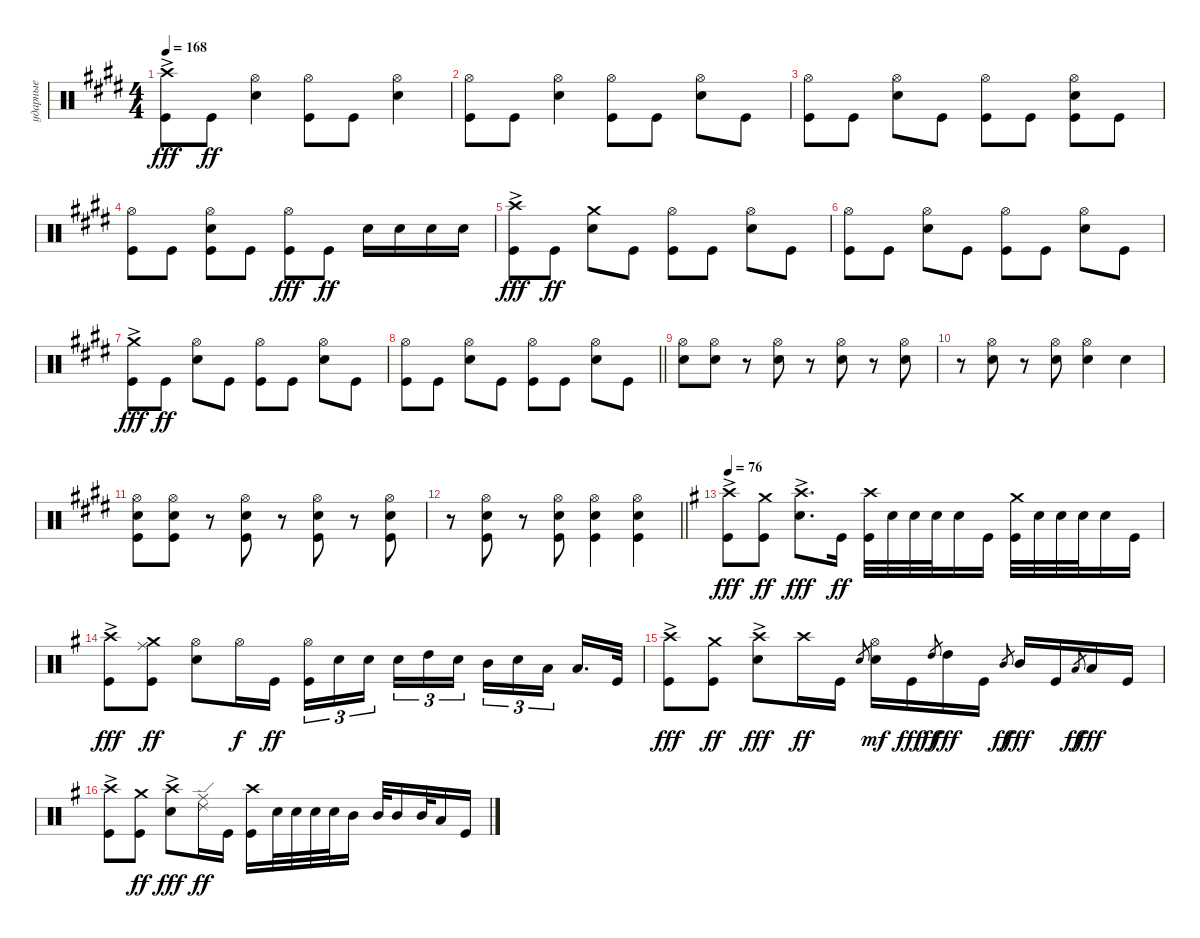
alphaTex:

\track ("ударные" "ударные") {instrument percussion}
\staff {score}
\articulation defaults
\ts (4 4)
\tempo 168
\clef neutral
\ks e
("Kick (hit)" "Crash high (hit)"{ac}).8{dy fff} "Kick (hit)".8{dy ff} ("Snare (hit) 2" "Hi-Hat (open)").4 ("Kick (hit)" "Hi-Hat (open)").8 "Kick (hit)".8 ("Snare (hit) 2" "Hi-Hat (open)").4 |
("Kick (hit)" "Hi-Hat (open)").8 "Kick (hit)".8 ("Snare (hit) 2" "Hi-Hat (open)").4 ("Kick (hit)" "Hi-Hat (open)").8 "Kick (hit)".8 ("Snare (hit) 2" "Hi-Hat (open)").8 "Kick (hit)".8 |
("Kick (hit)" "Hi-Hat (open)").8 "Kick (hit)".8 ("Snare (hit) 2" "Hi-Hat (open)").8 "Kick (hit)".8 ("Kick (hit)" "Hi-Hat (open)").8 "Kick (hit)".8 ("Snare (hit) 2" "Hi-Hat (open)" "Kick (hit)").8 "Kick (hit)".8 |
("Kick (hit)" "Hi-Hat (open)").8 "Kick (hit)".8 ("Snare (hit) 2" "Hi-Hat (open)" "Kick (hit)").8 "Kick (hit)".8 ("Kick (hit)" "Hi-Hat (open)").8{dy fff} "Kick (hit)".8{dy ff} "Snare (hit) 2".16 "Snare (hit) 2".16 "Snare (hit) 2".16 "Snare (hit) 2".16 |
("Kick (hit)" "Crash high (hit)"{ac}).8{dy fff} "Kick (hit)".8{dy ff} ("Snare (hit) 2" "Crash medium (hit)").8 "Kick (hit)".8 ("Kick (hit)" "Hi-Hat (open)").8 "Kick (hit)".8 ("Snare (hit) 2" "Hi-Hat (open)").8 "Kick (hit)".8 |
("Kick (hit)" "Hi-Hat (open)").8 "Kick (hit)".8 ("Snare (hit) 2" "Hi-Hat (open)").8 "Kick (hit)".8 ("Kick (hit)" "Hi-Hat (open)").8 "Kick (hit)".8 ("Snare (hit) 2" "Hi-Hat (open)").8 "Kick (hit)".8 |
("Kick (hit)" "Crash medium (hit)"{ac}).8{dy fff} "Kick (hit)".8{dy ff} ("Snare (hit) 2" "Hi-Hat (open)").8 "Kick (hit)".8 ("Kick (hit)" "Hi-Hat (open)").8 "Kick (hit)".8 ("Snare (hit) 2" "Hi-Hat (open)").8 "Kick (hit)".8 |
\barLineRight lightlight
("Kick (hit)" "Hi-Hat (open)").8 "Kick (hit)".8 ("Snare (hit) 2" "Hi-Hat (open)").8 "Kick (hit)".8 ("Kick (hit)" "Hi-Hat (open)").8 "Kick (hit)".8 ("Snare (hit) 2" "Hi-Hat (open)").8 "Kick (hit)".8 |
("Snare (hit) 2" "Hi-Hat (open)").8 ("Snare (hit) 2" "Hi-Hat (open)").8 r.8 ("Snare (hit) 2" "Hi-Hat (open)").8 r.8 ("Snare (hit) 2" "Hi-Hat (open)").8 r.8 ("Snare (hit) 2" "Hi-Hat (open)").8 |
r.8 ("Snare (hit) 2" "Hi-Hat (open)").8 r.8 ("Snare (hit) 2" "Hi-Hat (open)").8 ("Snare (hit) 2" "Hi-Hat (open)").4 "Snare (hit) 2".4 |
("Kick (hit)" "Snare (hit) 2" "Hi-Hat (open)").8 ("Kick (hit)" "Snare (hit) 2" "Hi-Hat (open)").8 r.8 ("Kick (hit)" "Snare (hit) 2" "Hi-Hat (open)").8 r.8 ("Kick (hit)" "Snare (hit) 2" "Hi-Hat (open)").8 r.8 ("Kick (hit)" "Snare (hit) 2" "Hi-Hat (open)").8 |
\barLineRight lightlight
r.8 ("Kick (hit)" "Snare (hit) 2" "Hi-Hat (open)").8 r.8 ("Kick (hit)" "Snare (hit) 2" "Hi-Hat (open)").8 ("Kick (hit)" "Snare (hit) 2" "Hi-Hat (open)").4 ("Snare (hit) 2" "Kick (hit)" "Hi-Hat (open)").4 |
\tempo 76
\ks eminor
("Kick (hit)" "Crash high (hit)"{ac}).8{dy fff} ("Kick (hit)" "Crash medium (hit)").8{dy ff} ("Snare (hit) 2" "Crash high (hit)"{ac}).8{d dy fff} "Kick (hit)".16{dy ff} ("Kick (hit)" "Crash high (hit)").32 "Snare (hit) 2".32 "Snare (hit) 2".32 "Snare (hit) 2".32 "Snare (hit) 2".16 "Kick (hit)".16 ("Kick (hit)" "Crash medium (hit)").32 "Snare (hit) 2".32 "Snare (hit) 2".32 "Snare (hit) 2".32 "Snare (hit) 2".16 "Kick (hit)".16 |
("Kick (hit)" "Crash high (hit)"{ac}).8{dy fff} ("Kick (hit)" "Crash medium (hit)" "Ride (middle)").8{dy ff} ("Snare (hit) 2" "Hi-Hat (open)").8 "Hi-Hat (open)".16{dy f} "Kick (hit)".16{dy ff} ("Kick (hit)" "Hi-Hat (open)").16{tu (3 2)} "Snare (hit) 2".16{tu (3 2)} "Snare (hit) 2".16{tu (3 2) beam splitsecondary} "Snare (hit) 2".16{tu (3 2)} "High Tom (hit)".16{tu (3 2)} "Snare (hit) 2".16{tu (3 2)} "Mid Tom (hit)".16{tu (3 2)} "Snare (hit) 2".16{tu (3 2)} "Low Tom (hit)".16{tu (3 2) beam splitsecondary} "Low Tom (hit)".16{d} "Kick (hit)".32 |
("Kick (hit)" "Crash high (hit)"{ac}).8{dy fff} ("Kick (hit)" "Crash medium (hit)").8{dy ff} ("Snare (hit) 2" "Crash high (hit)"{ac}).8{dy fff} "Crash high (hit)".16{dy ff} "Kick (hit)".16 "Snare (hit) 2".8{gr} ("Snare (hit) 2" "Hi-Hat (open)").16{dy mf} "Kick (hit)".16{dy fff} "High Tom (hit)".8{gr dy ff} "High Tom (hit)".16{dy fff} "Kick (hit)".16 "Mid Tom (hit)".8{gr dy ff} "Mid Tom (hit)".16{dy fff} "Kick (hit)".16 "Low Tom (hit)".8{gr dy ff} "Low Tom (hit)".16{dy fff} "Kick (hit)".16 |
("Kick (hit)" "Crash high (hit)"{ac}).8 ("Kick (hit)" "Crash medium (hit)").8{dy ff} ("Snare (hit) 2" "Crash high (hit)"{ac}).8{dy fff} ("Ride (middle)" "Ride (edge) 2").16{dy ff} "Kick (hit)".16 ("Kick (hit)" "Crash high (hit)").16 "Snare (hit) 2".32 "Snare (hit) 2".32 "Snare (hit) 2".32 "Snare (hit) 2".32 "Mid Tom (hit)".16 "Mid Tom (hit)".32 "Mid Tom (hit)".16 "Mid Tom (hit)".32 "Low Tom (hit)".16 "Kick (hit)".16
